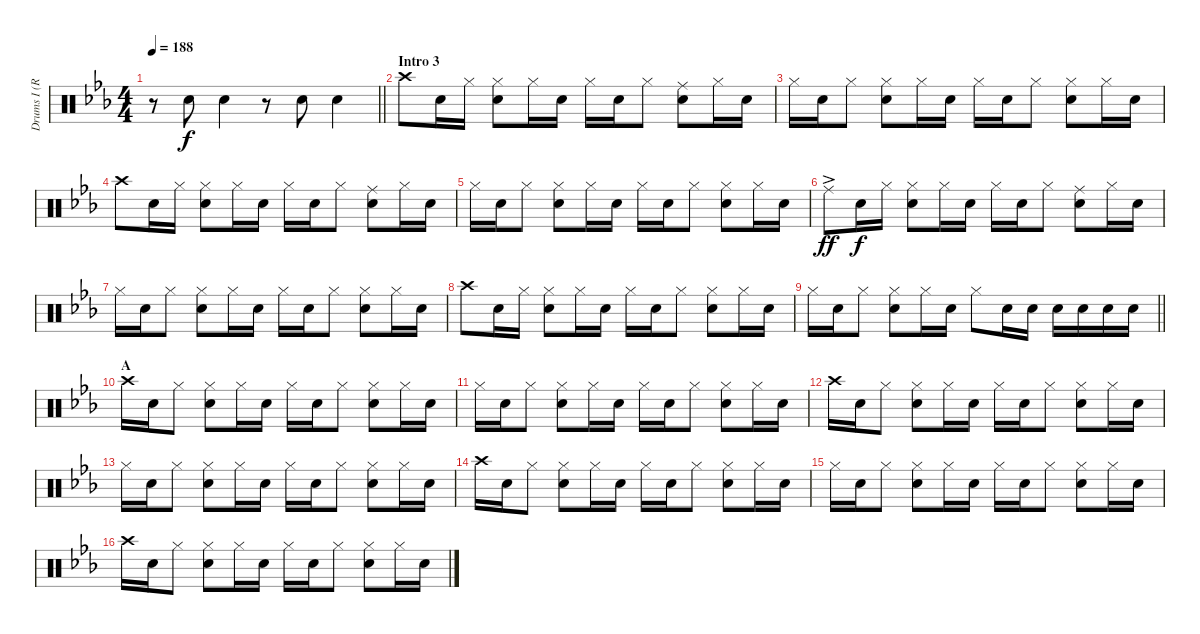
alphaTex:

\track ("Drums I (RUKA)" "Drums I (R") {instrument percussion}
\staff {score}
\articulation defaults
\ts (4 4)
\tempo 188
\clef neutral
\barLineRight lightlight
\ks eb
r.8{dy f} "Snare (hit) 2".8 "Snare (hit) 2".4 r.8 "Snare (hit) 2".8 "Snare (hit) 2".4 |
\section ("" "Intro 3")
"Crash high (hit)".8 "Snare (hit) 2".16 "Hi-Hat (closed)".16 ("Hi-Hat (closed)" "Snare (hit) 2").8 "Hi-Hat (closed)".16 "Snare (hit) 2".16 "Hi-Hat (closed)".16 "Snare (hit) 2".16 "Hi-Hat (closed)".8 ("Ride (middle)" "Snare (hit) 2").8 "Hi-Hat (closed)".16 "Snare (hit) 2".16 |
"Hi-Hat (closed)".16 "Snare (hit) 2".16 "Hi-Hat (closed)".8 ("Hi-Hat (closed)" "Snare (hit) 2").8 "Hi-Hat (closed)".16 "Snare (hit) 2".16 "Hi-Hat (closed)".16 "Snare (hit) 2".16 "Hi-Hat (closed)".8 ("Hi-Hat (closed)" "Snare (hit) 2").8 "Hi-Hat (closed)".16 "Snare (hit) 2".16 |
"Crash high (hit)".8 "Snare (hit) 2".16 "Hi-Hat (closed)".16 ("Hi-Hat (closed)" "Snare (hit) 2").8 "Hi-Hat (closed)".16 "Snare (hit) 2".16 "Hi-Hat (closed)".16 "Snare (hit) 2".16 "Hi-Hat (closed)".8 ("Ride (middle)" "Snare (hit) 2").8 "Hi-Hat (closed)".16 "Snare (hit) 2".16 |
"Hi-Hat (closed)".16 "Snare (hit) 2".16 "Hi-Hat (closed)".8 ("Hi-Hat (closed)" "Snare (hit) 2").8 "Hi-Hat (closed)".16 "Snare (hit) 2".16 "Hi-Hat (closed)".16 "Snare (hit) 2".16 "Hi-Hat (closed)".8 ("Hi-Hat (closed)" "Snare (hit) 2").8 "Hi-Hat (closed)".16 "Snare (hit) 2".16 |
"Ride (middle)"{ac}.8{dy ff} "Snare (hit) 2".16{dy f} "Hi-Hat (closed)".16 ("Hi-Hat (closed)" "Snare (hit) 2").8 "Hi-Hat (closed)".16 "Snare (hit) 2".16 "Hi-Hat (closed)".16 "Snare (hit) 2".16 "Hi-Hat (closed)".8 ("Ride (middle)" "Snare (hit) 2").8 "Hi-Hat (closed)".16 "Snare (hit) 2".16 |
"Hi-Hat (closed)".16 "Snare (hit) 2".16 "Hi-Hat (closed)".8 ("Hi-Hat (closed)" "Snare (hit) 2").8 "Hi-Hat (closed)".16 "Snare (hit) 2".16 "Hi-Hat (closed)".16 "Snare (hit) 2".16 "Hi-Hat (closed)".8 ("Hi-Hat (closed)" "Snare (hit) 2").8 "Hi-Hat (closed)".16 "Snare (hit) 2".16 |
"Crash high (hit)".8 "Snare (hit) 2".16 "Hi-Hat (closed)".16 ("Hi-Hat (closed)" "Snare (hit) 2").8 "Hi-Hat (closed)".16 "Snare (hit) 2".16 "Hi-Hat (closed)".16 "Snare (hit) 2".16 "Hi-Hat (closed)".8 ("Hi-Hat (closed)" "Snare (hit) 2").8 "Hi-Hat (closed)".16 "Snare (hit) 2".16 |
\barLineRight lightlight "Hi-Hat (closed)".16 "Snare (hit) 2".16 "Hi-Hat (closed)".8
("Hi-Hat (closed)" "Snare (hit) 2").8 "Hi-Hat (closed)".16 "Snare (hit) 2".16 "Hi-Hat (closed)".8 "Snare (hit) 2".16 "Snare (hit) 2".16 "Snare (hit) 2".16 "Snare (hit) 2".16 "Snare (hit) 2".16 "Snare (hit) 2".16 |
\section ("" "A")
"Crash high (hit)".16 "Snare (hit) 2".16 "Hi-Hat (closed)".8 ("Hi-Hat (closed)" "Snare (hit) 2").8 "Hi-Hat (closed)".16 "Snare (hit) 2".16 "Hi-Hat (closed)".16 "Snare (hit) 2".16 "Hi-Hat (closed)".8 ("Hi-Hat (closed)" "Snare (hit) 2").8 "Hi-Hat (closed)".16 "Snare (hit) 2".16 |
"Hi-Hat (closed)".16 "Snare (hit) 2".16 "Hi-Hat (closed)".8 ("Hi-Hat (closed)" "Snare (hit) 2").8 "Hi-Hat (closed)".16 "Snare (hit) 2".16 "Hi-Hat (closed)".16 "Snare (hit) 2".16 "Hi-Hat (closed)".8 ("Hi-Hat (closed)" "Snare (hit) 2").8 "Hi-Hat (closed)".16 "Snare (hit) 2".16 |
"Crash high (hit)".16 "Snare (hit) 2".16 "Hi-Hat (closed)".8 ("Hi-Hat (closed)" "Snare (hit) 2").8 "Hi-Hat (closed)".16 "Snare (hit) 2".16 "Hi-Hat (closed)".16 "Snare (hit) 2".16 "Hi-Hat (closed)".8 ("Hi-Hat (closed)" "Snare (hit) 2").8 "Hi-Hat (closed)".16 "Snare (hit) 2".16 |
"Hi-Hat (closed)".16 "Snare (hit) 2".16 "Hi-Hat (closed)".8 ("Hi-Hat (closed)" "Snare (hit) 2").8 "Hi-Hat (closed)".16 "Snare (hit) 2".16 "Hi-Hat (closed)".16 "Snare (hit) 2".16 "Hi-Hat (closed)".8 ("Hi-Hat (closed)" "Snare (hit) 2").8 "Hi-Hat (closed)".16 "Snare (hit) 2".16 |
"Crash high (hit)".16 "Snare (hit) 2".16 "Hi-Hat (closed)".8 ("Hi-Hat (closed)" "Snare (hit) 2").8 "Hi-Hat (closed)".16 "Snare (hit) 2".16 "Hi-Hat (closed)".16 "Snare (hit) 2".16 "Hi-Hat (closed)".8 ("Hi-Hat (closed)" "Snare (hit) 2").8 "Hi-Hat (closed)".16 "Snare (hit) 2".16 |
"Hi-Hat (closed)".16 "Snare (hit) 2".16 "Hi-Hat (closed)".8 ("Hi-Hat (closed)" "Snare (hit) 2").8 "Hi-Hat (closed)".16 "Snare (hit) 2".16 "Hi-Hat (closed)".16 "Snare (hit) 2".16 "Hi-Hat (closed)".8 ("Hi-Hat (closed)" "Snare (hit) 2").8 "Hi-Hat (closed)".16 "Snare (hit) 2".16 |
"Crash high (hit)".16 "Snare (hit) 2".16 "Hi-Hat (closed)".8 ("Hi-Hat (closed)" "Snare (hit) 2").8 "Hi-Hat (closed)".16 "Snare (hit) 2".16 "Hi-Hat (closed)".16 "Snare (hit) 2".16 "Hi-Hat (closed)".8 ("Hi-Hat (closed)" "Snare (hit) 2").8 "Hi-Hat (closed)".16 "Snare (hit) 2".16
